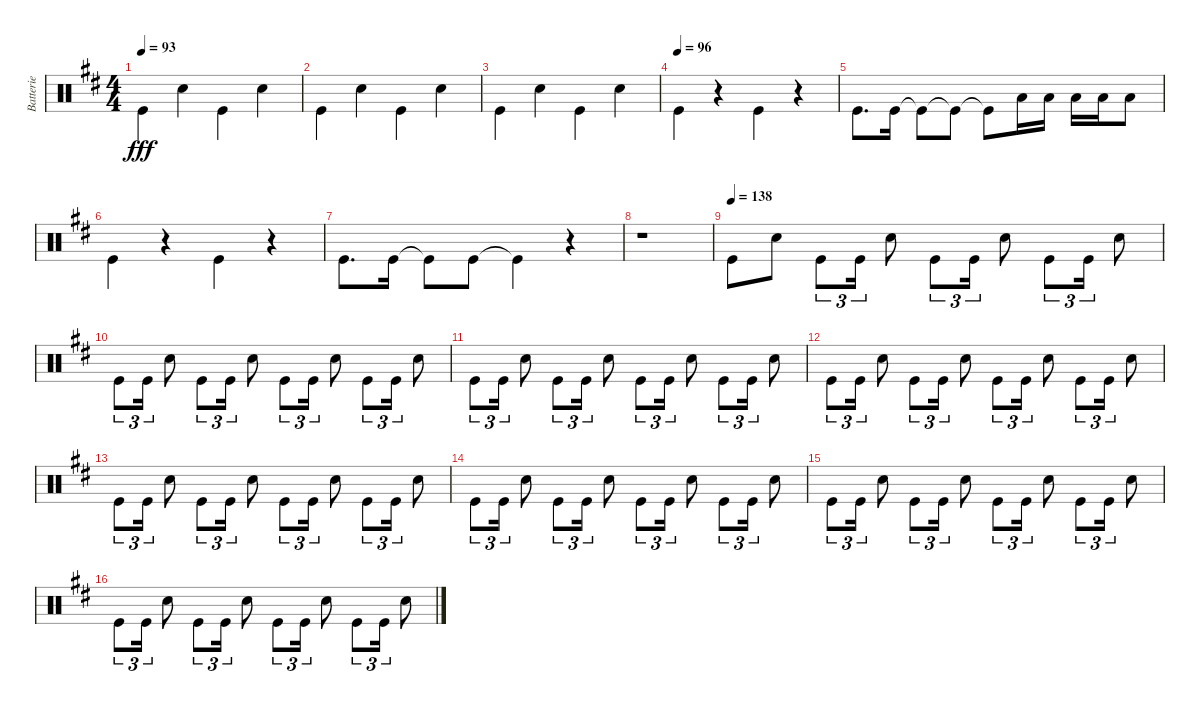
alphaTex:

\track ("Batterie" "Batterie") {instrument percussion}
\staff {score}
\articulation defaults
\ts (4 4)
\tempo 93
\clef neutral
\ks d "Kick (hit)".4{dy fff beam Down} "Snare (hit) 2".4{beam Down} "Kick (hit)".4{beam Down} "Snare (hit) 2".4{beam Down}
|
"Kick (hit)".4{beam Down} "Snare (hit) 2".4{beam Down} "Kick (hit)".4{beam Down} "Snare (hit) 2".4{beam Down} |
"Kick (hit)".4{beam Down} "Snare (hit) 2".4{beam Down} "Kick (hit)".4{beam Down} "Snare (hit) 2".4{beam Down} |
\tempo (96)
"Kick (hit)".4{beam Down} r.4 "Kick (hit)".4{beam Down} r.4 |
"Kick (hit)".8{d beam Down} "Kick (hit)".16{beam Down} "Kick (hit)"{t}.8{beam Down} "Kick (hit)"{t}.8{beam Down} "Kick (hit)"{t}.8{beam Down} "Low Tom (hit)".16{beam Down} "Low Tom (hit)".16{beam Down} "Low Tom (hit)".16{beam Down} "Low Tom (hit)".16{beam Down} "Low Tom (hit)".8{beam Down} |
"Kick (hit)".4{beam Down} r.4 "Kick (hit)".4{beam Down} r.4 |
"Kick (hit)".8{d beam Down} "Kick (hit)".16{beam Down} "Kick (hit)"{t}.8{beam Down} "Kick (hit)".8{beam Down} "Kick (hit)"{t}.4{beam Down} r.4 |
r.1 |
\tempo (138)
"Kick (hit)".8{beam Down} "Snare (hit) 2".8{beam Down} "Kick (hit)".8{tu (3 2) beam Down} "Kick (hit)".16{tu (3 2) beam Down} "Snare (hit) 2".8{beam Down} "Kick (hit)".8{tu (3 2) beam Down} "Kick (hit)".16{tu (3 2) beam Down} "Snare (hit) 2".8{beam Down} "Kick (hit)".8{tu (3 2) beam Down} "Kick (hit)".16{tu (3 2) beam Down} "Snare (hit) 2".8{beam Down} |
"Kick (hit)".8{tu (3 2) beam Down} "Kick (hit)".16{tu (3 2) beam Down} "Snare (hit) 2".8{beam Down} "Kick (hit)".8{tu (3 2) beam Down} "Kick (hit)".16{tu (3 2) beam Down} "Snare (hit) 2".8{beam Down} "Kick (hit)".8{tu (3 2) beam Down} "Kick (hit)".16{tu (3 2) beam Down} "Snare (hit) 2".8{beam Down} "Kick (hit)".8{tu (3 2) beam Down} "Kick (hit)".16{tu (3 2) beam Down} "Snare (hit) 2".8{beam Down} |
"Kick (hit)".8{tu (3 2) beam Down} "Kick (hit)".16{tu (3 2) beam Down} "Snare (hit) 2".8{beam Down} "Kick (hit)".8{tu (3 2) beam Down} "Kick (hit)".16{tu (3 2) beam Down} "Snare (hit) 2".8{beam Down} "Kick (hit)".8{tu (3 2) beam Down} "Kick (hit)".16{tu (3 2) beam Down} "Snare (hit) 2".8{beam Down} "Kick (hit)".8{tu (3 2) beam Down} "Kick (hit)".16{tu (3 2) beam Down} "Snare (hit) 2".8{beam Down} |
"Kick (hit)".8{tu (3 2) beam Down} "Kick (hit)".16{tu (3 2) beam Down} "Snare (hit) 2".8{beam Down} "Kick (hit)".8{tu (3 2) beam Down} "Kick (hit)".16{tu (3 2) beam Down} "Snare (hit) 2".8{beam Down} "Kick (hit)".8{tu (3 2) beam Down} "Kick (hit)".16{tu (3 2) beam Down} "Snare (hit) 2".8{beam Down} "Kick (hit)".8{tu (3 2) beam Down} "Kick (hit)".16{tu (3 2) beam Down} "Snare (hit) 2".8{beam Down} |
"Kick (hit)".8{tu (3 2) beam Down} "Kick (hit)".16{tu (3 2) beam Down} "Snare (hit) 2".8{beam Down} "Kick (hit)".8{tu (3 2) beam Down} "Kick (hit)".16{tu (3 2) beam Down} "Snare (hit) 2".8{beam Down} "Kick (hit)".8{tu (3 2) beam Down} "Kick (hit)".16{tu (3 2) beam Down} "Snare (hit) 2".8{beam Down} "Kick (hit)".8{tu (3 2) beam Down} "Kick (hit)".16{tu (3 2) beam Down} "Snare (hit) 2".8{beam Down} |
"Kick (hit)".8{tu (3 2) beam Down} "Kick (hit)".16{tu (3 2) beam Down} "Snare (hit) 2".8{beam Down} "Kick (hit)".8{tu (3 2) beam Down} "Kick (hit)".16{tu (3 2) beam Down} "Snare (hit) 2".8{beam Down} "Kick (hit)".8{tu (3 2) beam Down} "Kick (hit)".16{tu (3 2) beam Down} "Snare (hit) 2".8{beam Down} "Kick (hit)".8{tu (3 2) beam Down} "Kick (hit)".16{tu (3 2) beam Down} "Snare (hit) 2".8{beam Down} |
"Kick (hit)".8{tu (3 2) beam Down} "Kick (hit)".16{tu (3 2) beam Down} "Snare (hit) 2".8{beam Down} "Kick (hit)".8{tu (3 2) beam Down} "Kick (hit)".16{tu (3 2) beam Down} "Snare (hit) 2".8{beam Down} "Kick (hit)".8{tu (3 2) beam Down} "Kick (hit)".16{tu (3 2) beam Down} "Snare (hit) 2".8{beam Down} "Kick (hit)".8{tu (3 2) beam Down} "Kick (hit)".16{tu (3 2) beam Down} "Snare (hit) 2".8{beam Down} |
"Kick (hit)".8{tu (3 2) beam Down} "Kick (hit)".16{tu (3 2) beam Down} "Snare (hit) 2".8{beam Down} "Kick (hit)".8{tu (3 2) beam Down} "Kick (hit)".16{tu (3 2) beam Down} "Snare (hit) 2".8{beam Down} "Kick (hit)".8{tu (3 2) beam Down} "Kick (hit)".16{tu (3 2) beam Down} "Snare (hit) 2".8{beam Down} "Kick (hit)".8{tu (3 2) beam Down} "Kick (hit)".16{tu (3 2) beam Down} "Snare (hit) 2".8{beam Down}
